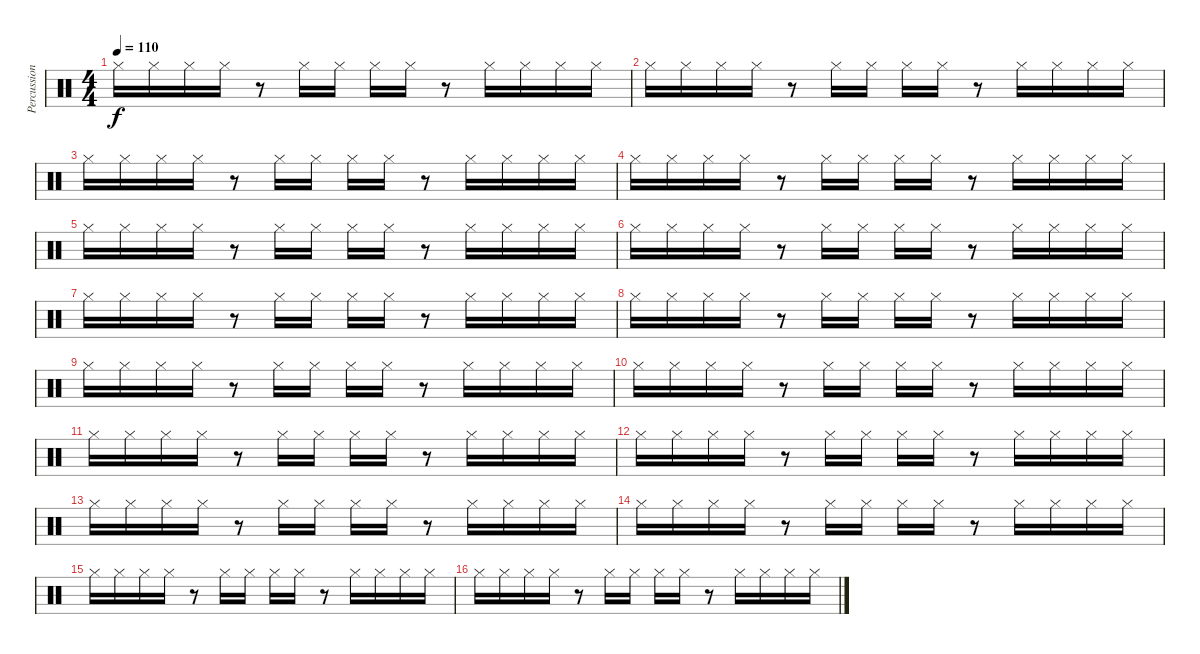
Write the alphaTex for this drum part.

\track ("Percussion" "Percussion") {instrument percussion}
\staff {score}
\articulation defaults
\ts (4 4)
\tempo 110
\clef neutral
\ks c "Hi-Hat (closed)".16{dy f} "Hi-Hat (closed)".16 "Hi-Hat (closed)".16 "Hi-Hat (closed)".16
r.8 "Hi-Hat (closed)".16 "Hi-Hat (closed)".16 "Hi-Hat (closed)".16 "Hi-Hat (closed)".16 r.8 "Hi-Hat (closed)".16 "Hi-Hat (closed)".16 "Hi-Hat (closed)".16 "Hi-Hat (closed)".16 |
"Hi-Hat (closed)".16 "Hi-Hat (closed)".16 "Hi-Hat (closed)".16 "Hi-Hat (closed)".16 r.8 "Hi-Hat (closed)".16 "Hi-Hat (closed)".16 "Hi-Hat (closed)".16 "Hi-Hat (closed)".16 r.8 "Hi-Hat (closed)".16 "Hi-Hat (closed)".16 "Hi-Hat (closed)".16 "Hi-Hat (closed)".16 |
"Hi-Hat (closed)".16 "Hi-Hat (closed)".16 "Hi-Hat (closed)".16 "Hi-Hat (closed)".16 r.8 "Hi-Hat (closed)".16 "Hi-Hat (closed)".16 "Hi-Hat (closed)".16 "Hi-Hat (closed)".16 r.8 "Hi-Hat (closed)".16 "Hi-Hat (closed)".16 "Hi-Hat (closed)".16 "Hi-Hat (closed)".16 |
"Hi-Hat (closed)".16 "Hi-Hat (closed)".16 "Hi-Hat (closed)".16 "Hi-Hat (closed)".16 r.8 "Hi-Hat (closed)".16 "Hi-Hat (closed)".16 "Hi-Hat (closed)".16 "Hi-Hat (closed)".16 r.8 "Hi-Hat (closed)".16 "Hi-Hat (closed)".16 "Hi-Hat (closed)".16 "Hi-Hat (closed)".16 |
"Hi-Hat (closed)".16 "Hi-Hat (closed)".16 "Hi-Hat (closed)".16 "Hi-Hat (closed)".16 r.8 "Hi-Hat (closed)".16 "Hi-Hat (closed)".16 "Hi-Hat (closed)".16 "Hi-Hat (closed)".16 r.8 "Hi-Hat (closed)".16 "Hi-Hat (closed)".16 "Hi-Hat (closed)".16 "Hi-Hat (closed)".16 |
"Hi-Hat (closed)".16 "Hi-Hat (closed)".16 "Hi-Hat (closed)".16 "Hi-Hat (closed)".16 r.8 "Hi-Hat (closed)".16 "Hi-Hat (closed)".16 "Hi-Hat (closed)".16 "Hi-Hat (closed)".16 r.8 "Hi-Hat (closed)".16 "Hi-Hat (closed)".16 "Hi-Hat (closed)".16 "Hi-Hat (closed)".16 |
"Hi-Hat (closed)".16 "Hi-Hat (closed)".16 "Hi-Hat (closed)".16 "Hi-Hat (closed)".16 r.8 "Hi-Hat (closed)".16 "Hi-Hat (closed)".16 "Hi-Hat (closed)".16 "Hi-Hat (closed)".16 r.8 "Hi-Hat (closed)".16 "Hi-Hat (closed)".16 "Hi-Hat (closed)".16 "Hi-Hat (closed)".16 |
"Hi-Hat (closed)".16 "Hi-Hat (closed)".16 "Hi-Hat (closed)".16 "Hi-Hat (closed)".16 r.8 "Hi-Hat (closed)".16 "Hi-Hat (closed)".16 "Hi-Hat (closed)".16 "Hi-Hat (closed)".16 r.8 "Hi-Hat (closed)".16 "Hi-Hat (closed)".16 "Hi-Hat (closed)".16 "Hi-Hat (closed)".16 |
"Hi-Hat (closed)".16 "Hi-Hat (closed)".16 "Hi-Hat (closed)".16 "Hi-Hat (closed)".16 r.8 "Hi-Hat (closed)".16 "Hi-Hat (closed)".16 "Hi-Hat (closed)".16 "Hi-Hat (closed)".16 r.8 "Hi-Hat (closed)".16 "Hi-Hat (closed)".16 "Hi-Hat (closed)".16 "Hi-Hat (closed)".16 |
"Hi-Hat (closed)".16 "Hi-Hat (closed)".16 "Hi-Hat (closed)".16 "Hi-Hat (closed)".16 r.8 "Hi-Hat (closed)".16 "Hi-Hat (closed)".16 "Hi-Hat (closed)".16 "Hi-Hat (closed)".16 r.8 "Hi-Hat (closed)".16 "Hi-Hat (closed)".16 "Hi-Hat (closed)".16 "Hi-Hat (closed)".16 |
"Hi-Hat (closed)".16 "Hi-Hat (closed)".16 "Hi-Hat (closed)".16 "Hi-Hat (closed)".16 r.8 "Hi-Hat (closed)".16 "Hi-Hat (closed)".16 "Hi-Hat (closed)".16 "Hi-Hat (closed)".16 r.8 "Hi-Hat (closed)".16 "Hi-Hat (closed)".16 "Hi-Hat (closed)".16 "Hi-Hat (closed)".16 |
"Hi-Hat (closed)".16 "Hi-Hat (closed)".16 "Hi-Hat (closed)".16 "Hi-Hat (closed)".16 r.8 "Hi-Hat (closed)".16 "Hi-Hat (closed)".16 "Hi-Hat (closed)".16 "Hi-Hat (closed)".16 r.8 "Hi-Hat (closed)".16 "Hi-Hat (closed)".16 "Hi-Hat (closed)".16 "Hi-Hat (closed)".16 |
"Hi-Hat (closed)".16 "Hi-Hat (closed)".16 "Hi-Hat (closed)".16 "Hi-Hat (closed)".16 r.8 "Hi-Hat (closed)".16 "Hi-Hat (closed)".16 "Hi-Hat (closed)".16 "Hi-Hat (closed)".16 r.8 "Hi-Hat (closed)".16 "Hi-Hat (closed)".16 "Hi-Hat (closed)".16 "Hi-Hat (closed)".16 |
"Hi-Hat (closed)".16 "Hi-Hat (closed)".16 "Hi-Hat (closed)".16 "Hi-Hat (closed)".16 r.8 "Hi-Hat (closed)".16 "Hi-Hat (closed)".16 "Hi-Hat (closed)".16 "Hi-Hat (closed)".16 r.8 "Hi-Hat (closed)".16 "Hi-Hat (closed)".16 "Hi-Hat (closed)".16 "Hi-Hat (closed)".16 |
"Hi-Hat (closed)".16 "Hi-Hat (closed)".16 "Hi-Hat (closed)".16 "Hi-Hat (closed)".16 r.8 "Hi-Hat (closed)".16 "Hi-Hat (closed)".16 "Hi-Hat (closed)".16 "Hi-Hat (closed)".16 r.8 "Hi-Hat (closed)".16 "Hi-Hat (closed)".16 "Hi-Hat (closed)".16 "Hi-Hat (closed)".16 |
"Hi-Hat (closed)".16 "Hi-Hat (closed)".16 "Hi-Hat (closed)".16 "Hi-Hat (closed)".16 r.8 "Hi-Hat (closed)".16 "Hi-Hat (closed)".16 "Hi-Hat (closed)".16 "Hi-Hat (closed)".16 r.8 "Hi-Hat (closed)".16 "Hi-Hat (closed)".16 "Hi-Hat (closed)".16 "Hi-Hat (closed)".16
